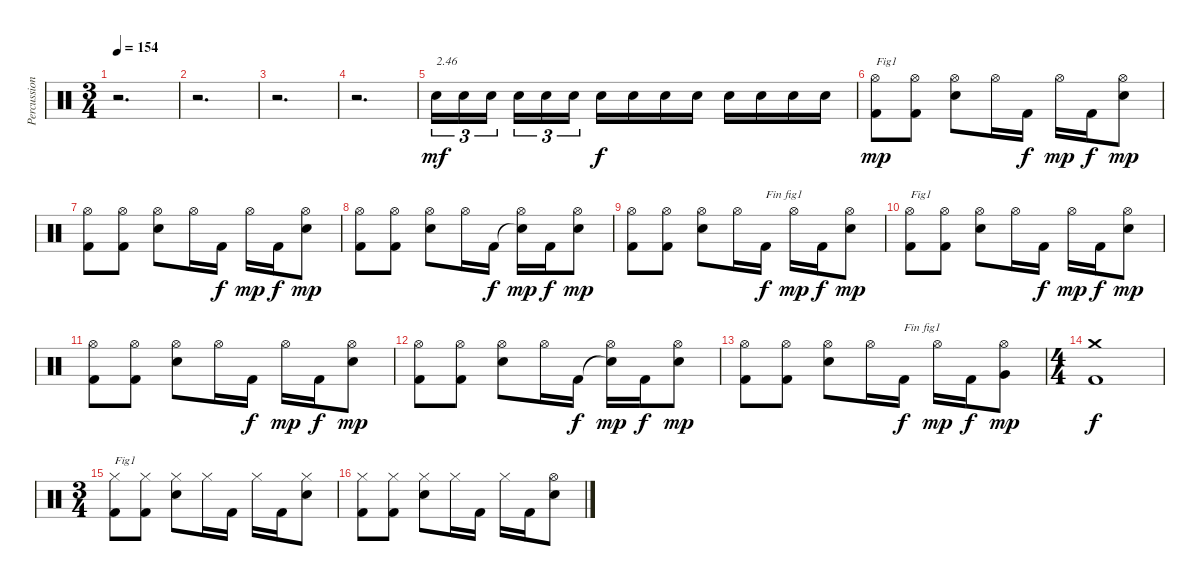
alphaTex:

\track ("Percussions" "Percussion") {instrument percussion}
\staff {score}
\articulation defaults
\ts (3 4)
\tempo 154
\clef neutral
\ks c
r.2{d dy p} |
r.2{d} |
r.2{d} |
r.2{d} |
"Electric Snare (hit)".16{tu (3 2) txt "2.46" dy mf} "Electric Snare (hit)".16{tu (3 2)} "Electric Snare (hit)".16{tu (3 2)} "Electric Snare (hit)".16{tu (3 2)} "Electric Snare (hit)".16{tu (3 2)} "Electric Snare (hit)".16{tu (3 2)} "Electric Snare (hit)".16{dy f} "Electric Snare (hit)".16 "Electric Snare (hit)".16 "Electric Snare (hit)".16 "Electric Snare (hit)".16 "Electric Snare (hit)".16 "Electric Snare (hit)".16 "Electric Snare (hit)".16 |
("Kick (hit) 2" "Hi-Hat (open)").8{txt "Fig1" dy mp} ("Kick (hit) 2" "Hi-Hat (open)").8 ("Electric Snare (hit)" "Hi-Hat (open)").8 "Hi-Hat (open)".16 "Kick (hit) 2".16{dy f} "Hi-Hat (open)".16{dy mp} "Kick (hit) 2".16{dy f} ("Electric Snare (hit)" "Hi-Hat (open)").8{dy mp} |
("Kick (hit) 2" "Hi-Hat (open)").8 ("Kick (hit) 2" "Hi-Hat (open)").8 ("Electric Snare (hit)" "Hi-Hat (open)").8 "Hi-Hat (open)".16 "Kick (hit) 2".16{dy f} "Hi-Hat (open)".16{dy mp} "Kick (hit) 2".16{dy f} ("Electric Snare (hit)" "Hi-Hat (open)").8{dy mp} |
("Kick (hit) 2" "Hi-Hat (open)").8 ("Kick (hit) 2" "Hi-Hat (open)").8 ("Electric Snare (hit)" "Hi-Hat (open)").8 "Hi-Hat (open)".16 "Kick (hit) 2".16{dy f} ("Snare (hit)"{t} "Hi-Hat (open)").16{dy mp} "Kick (hit) 2".16{dy f} ("Electric Snare (hit)" "Hi-Hat (open)").8{dy mp} |
("Kick (hit) 2" "Hi-Hat (open)").8 ("Kick (hit) 2" "Hi-Hat (open)").8 ("Electric Snare (hit)" "Hi-Hat (open)").8 "Hi-Hat (open)".16 "Kick (hit) 2".16{txt "Fin fig1" dy f} "Hi-Hat (open)".16{dy mp} "Kick (hit) 2".16{dy f} ("Electric Snare (hit)" "Hi-Hat (open)").8{dy mp} |
("Kick (hit) 2" "Hi-Hat (open)").8{txt "Fig1"} ("Kick (hit) 2" "Hi-Hat (open)").8 ("Electric Snare (hit)" "Hi-Hat (open)").8 "Hi-Hat (open)".16 "Kick (hit) 2".16{dy f} "Hi-Hat (open)".16{dy mp} "Kick (hit) 2".16{dy f} ("Electric Snare (hit)" "Hi-Hat (open)").8{dy mp} |
("Kick (hit) 2" "Hi-Hat (open)").8 ("Kick (hit) 2" "Hi-Hat (open)").8 ("Electric Snare (hit)" "Hi-Hat (open)").8 "Hi-Hat (open)".16 "Kick (hit) 2".16{dy f} "Hi-Hat (open)".16{dy mp} "Kick (hit) 2".16{dy f} ("Electric Snare (hit)" "Hi-Hat (open)").8{dy mp} |
("Kick (hit) 2" "Hi-Hat (open)").8 ("Kick (hit) 2" "Hi-Hat (open)").8 ("Electric Snare (hit)" "Hi-Hat (open)").8 "Hi-Hat (open)".16 "Kick (hit) 2".16{dy f} ("Snare (hit)"{t} "Hi-Hat (open)").16{dy mp} "Kick (hit) 2".16{dy f} ("Electric Snare (hit)" "Hi-Hat (open)").8{dy mp} |
("Kick (hit) 2" "Hi-Hat (open)").8 ("Kick (hit) 2" "Hi-Hat (open)").8 ("Electric Snare (hit)" "Hi-Hat (open)").8 "Hi-Hat (open)".16 "Kick (hit) 2".16{txt "Fin fig1" dy f} "Hi-Hat (open)".16{dy mp} "Kick (hit) 2".16{dy f} ("Very Low Tom (hit)" "Hi-Hat (open)").8{dy mp} |
\ts (4 4)
("Kick (hit) 2" "Crash medium (hit)").1{dy f} |
\ts (3 4)
("Kick (hit) 2" "Hi-Hat (closed)").8{txt "Fig1"} ("Kick (hit) 2" "Hi-Hat (closed)").8 ("Electric Snare (hit)" "Hi-Hat (closed)").8 "Hi-Hat (closed)".16 "Kick (hit) 2".16 "Hi-Hat (closed)".16 "Kick (hit) 2".16 ("Electric Snare (hit)" "Hi-Hat (closed)").8 |
("Kick (hit) 2" "Hi-Hat (closed)").8 ("Kick (hit) 2" "Hi-Hat (closed)").8 ("Electric Snare (hit)" "Hi-Hat (closed)").8 "Hi-Hat (closed)".16 "Kick (hit) 2".16 "Hi-Hat (closed)".16 "Kick (hit) 2".16 ("Electric Snare (hit)" "Hi-Hat (open)").8
